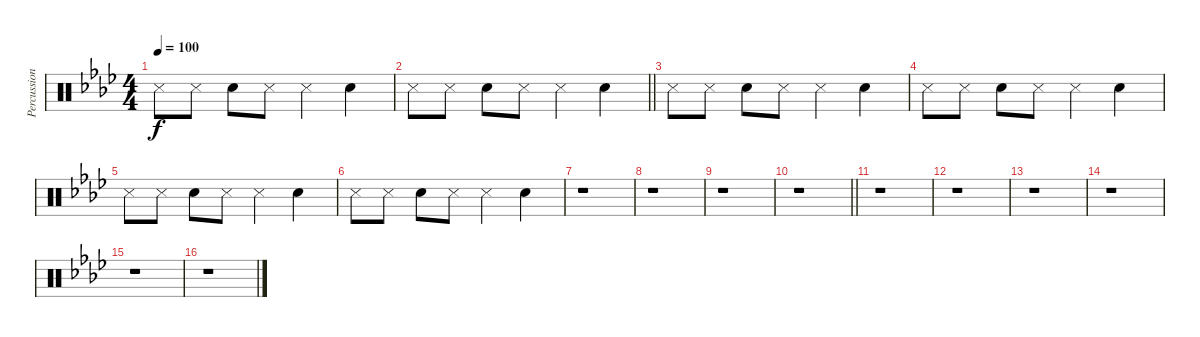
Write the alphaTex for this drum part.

\track ("Percussions" "Percussion") {instrument percussion}
\staff {score}
\articulation defaults
\ts (4 4)
\tempo 100
\clef neutral
\ks ab "Snare (side stick) 3".8{dy f} "Snare (side stick) 3".8 "Hand Clap (hit)".8 "Snare (side stick) 3".8 "Snare (side stick) 3".4 "Hand Clap (hit)".4
|
\barLineRight lightlight "Snare (side stick) 3".8 "Snare (side stick) 3".8 "Hand Clap (hit)".8 "Snare (side stick) 3".8 "Snare (side stick) 3".4 "Hand Clap (hit)".4
|
"Snare (side stick) 3".8 "Snare (side stick) 3".8 "Hand Clap (hit)".8 "Snare (side stick) 3".8 "Snare (side stick) 3".4 "Hand Clap (hit)".4 |
"Snare (side stick) 3".8 "Snare (side stick) 3".8 "Hand Clap (hit)".8 "Snare (side stick) 3".8 "Snare (side stick) 3".4 "Hand Clap (hit)".4 |
"Snare (side stick) 3".8 "Snare (side stick) 3".8 "Hand Clap (hit)".8 "Snare (side stick) 3".8 "Snare (side stick) 3".4 "Hand Clap (hit)".4 |
"Snare (side stick) 3".8 "Snare (side stick) 3".8 "Hand Clap (hit)".8 "Snare (side stick) 3".8 "Snare (side stick) 3".4 "Hand Clap (hit)".4 |
r.1 |
r.1 |
r.1 |
\barLineRight lightlight
r.1 |
r.1 |
r.1 |
r.1 |
r.1 |
r.1 |
r.1
